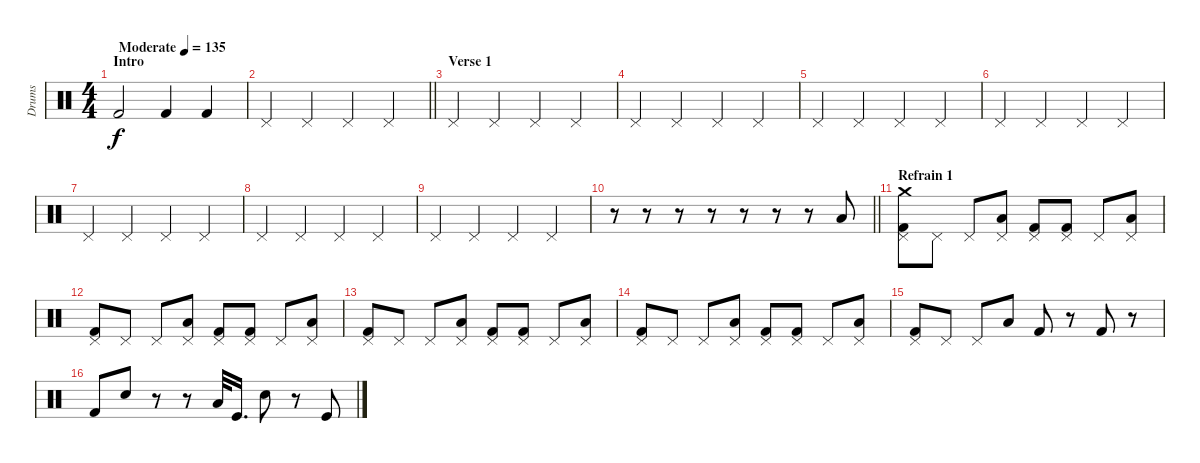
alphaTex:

\track ("Drums" "Drums") {instrument percussion}
\staff {score}
\articulation defaults
\ts (4 4)
\section ("" "Intro")
\tempo (135 "Moderate")
\clef neutral
\ks c "Kick (hit) 2".2{dy f} "Kick (hit) 2".4 "Kick (hit) 2".4
|
\barLineRight lightlight "Pedal Hi-Hat (hit)".4 "Pedal Hi-Hat (hit)".4 "Pedal Hi-Hat (hit)".4 "Pedal Hi-Hat (hit)".4
|
\section ("" "Verse 1")
"Pedal Hi-Hat (hit)".4 "Pedal Hi-Hat (hit)".4 "Pedal Hi-Hat (hit)".4 "Pedal Hi-Hat (hit)".4 |
"Pedal Hi-Hat (hit)".4 "Pedal Hi-Hat (hit)".4 "Pedal Hi-Hat (hit)".4 "Pedal Hi-Hat (hit)".4 |
"Pedal Hi-Hat (hit)".4 "Pedal Hi-Hat (hit)".4 "Pedal Hi-Hat (hit)".4 "Pedal Hi-Hat (hit)".4 |
"Pedal Hi-Hat (hit)".4 "Pedal Hi-Hat (hit)".4 "Pedal Hi-Hat (hit)".4 "Pedal Hi-Hat (hit)".4 |
"Pedal Hi-Hat (hit)".4 "Pedal Hi-Hat (hit)".4 "Pedal Hi-Hat (hit)".4 "Pedal Hi-Hat (hit)".4 |
"Pedal Hi-Hat (hit)".4 "Pedal Hi-Hat (hit)".4 "Pedal Hi-Hat (hit)".4 "Pedal Hi-Hat (hit)".4 |
"Pedal Hi-Hat (hit)".4 "Pedal Hi-Hat (hit)".4 "Pedal Hi-Hat (hit)".4 "Pedal Hi-Hat (hit)".4 |
\barLineRight lightlight
r.8 r.8 r.8 r.8 r.8 r.8 r.8 "Low Tom (hit)".8 |
\section ("" "Refrain 1")
("Kick (hit) 2" "Crash medium (hit)" "Pedal Hi-Hat (hit)").8 "Pedal Hi-Hat (hit)".8 "Pedal Hi-Hat (hit)".8 ("Low Tom (hit)" "Pedal Hi-Hat (hit)").8 ("Kick (hit) 2" "Pedal Hi-Hat (hit)").8 ("Kick (hit) 2" "Pedal Hi-Hat (hit)").8 "Pedal Hi-Hat (hit)".8 ("Low Tom (hit)" "Pedal Hi-Hat (hit)").8 |
("Kick (hit) 2" "Pedal Hi-Hat (hit)").8 "Pedal Hi-Hat (hit)".8 "Pedal Hi-Hat (hit)".8 ("Low Tom (hit)" "Pedal Hi-Hat (hit)").8 ("Kick (hit) 2" "Pedal Hi-Hat (hit)").8 ("Kick (hit) 2" "Pedal Hi-Hat (hit)").8 "Pedal Hi-Hat (hit)".8 ("Low Tom (hit)" "Pedal Hi-Hat (hit)").8 |
("Kick (hit) 2" "Pedal Hi-Hat (hit)").8 "Pedal Hi-Hat (hit)".8 "Pedal Hi-Hat (hit)".8 ("Low Tom (hit)" "Pedal Hi-Hat (hit)").8 ("Kick (hit) 2" "Pedal Hi-Hat (hit)").8 ("Kick (hit) 2" "Pedal Hi-Hat (hit)").8 "Pedal Hi-Hat (hit)".8 ("Low Tom (hit)" "Pedal Hi-Hat (hit)").8 |
("Kick (hit) 2" "Pedal Hi-Hat (hit)").8 "Pedal Hi-Hat (hit)".8 "Pedal Hi-Hat (hit)".8 ("Low Tom (hit)" "Pedal Hi-Hat (hit)").8 ("Kick (hit) 2" "Pedal Hi-Hat (hit)").8 ("Kick (hit) 2" "Pedal Hi-Hat (hit)").8 "Pedal Hi-Hat (hit)".8 ("Low Tom (hit)" "Pedal Hi-Hat (hit)").8 |
("Kick (hit) 2" "Pedal Hi-Hat (hit)").8 "Pedal Hi-Hat (hit)".8 "Pedal Hi-Hat (hit)".8 "Low Tom (hit)".8 "Kick (hit) 2".8 r.8 "Kick (hit) 2".8 r.8 |
"Kick (hit) 2".8 "Snare (hit) 2".8 r.8 r.8 "Low Tom (hit)".32 "Kick (hit)".16{d beam split} "Snare (hit) 2".8 r.8 "Kick (hit)".8
